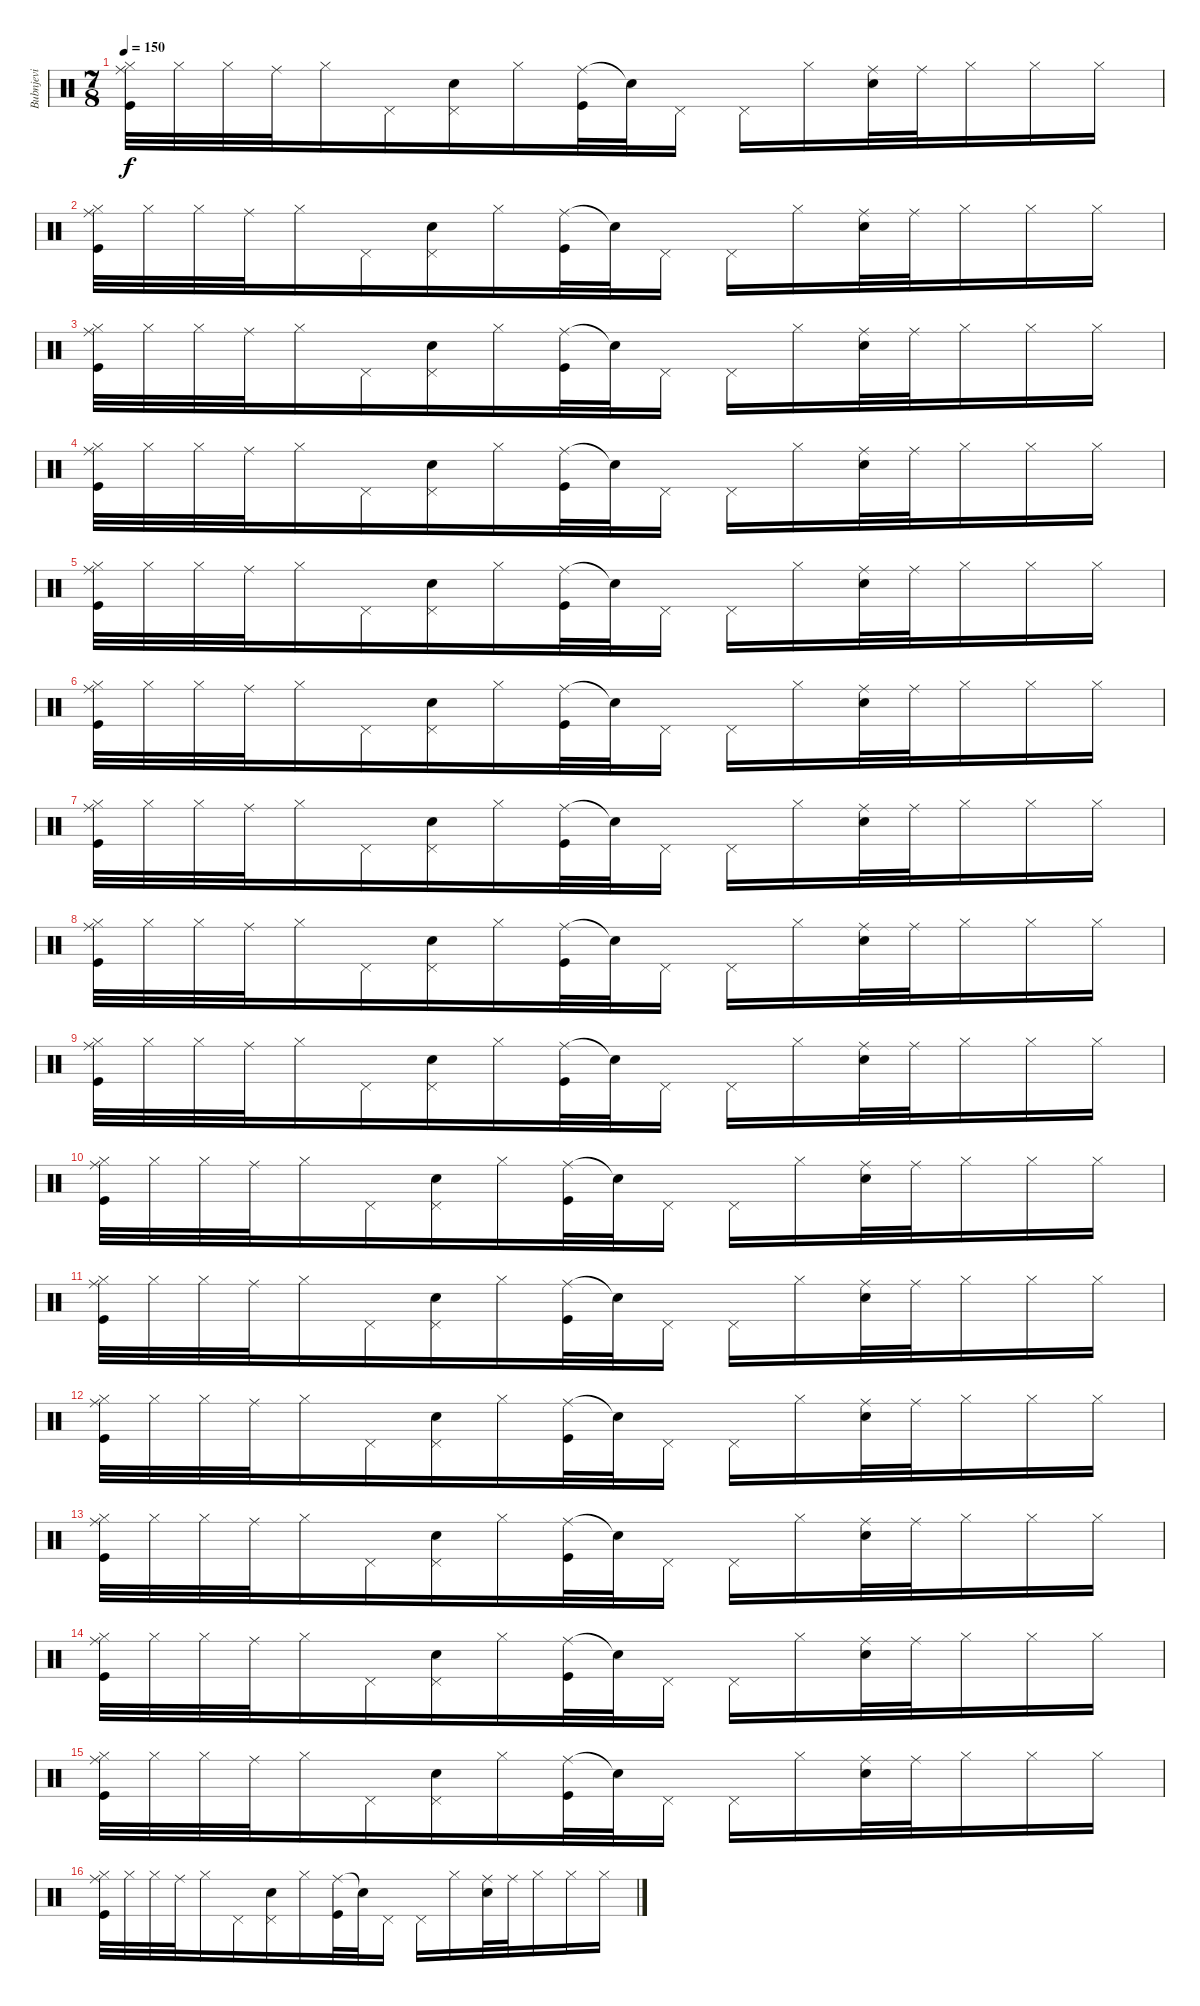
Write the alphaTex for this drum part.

\track ("Bubnjevi" "Bubnjevi") {instrument percussion}
\staff {score}
\articulation defaults
\ts (7 8)
\tempo 150
\clef neutral
\ks c
("Hi-Hat (closed)" "Ride (middle)" "Kick (hit)").32{dy f} "Hi-Hat (closed)".32 "Hi-Hat (closed)".32 "Ride (middle)".32 "Hi-Hat (closed)".16 "Pedal Hi-Hat (hit)".16 ("Pedal Hi-Hat (hit)" "Snare (hit) 2").16 "Hi-Hat (closed)".16 ("Ride (middle)" "Kick (hit)").32 "Snare (hit)"{t}.32 "Pedal Hi-Hat (hit)".16 "Pedal Hi-Hat (hit)".16 "Hi-Hat (closed)".16 ("Ride (middle)" "Snare (hit) 2").32 "Ride (middle)".32 "Hi-Hat (closed)".16 "Hi-Hat (closed)".16 "Hi-Hat (closed)".16 |
("Hi-Hat (closed)" "Ride (middle)" "Kick (hit)").32 "Hi-Hat (closed)".32 "Hi-Hat (closed)".32 "Ride (middle)".32 "Hi-Hat (closed)".16 "Pedal Hi-Hat (hit)".16 ("Pedal Hi-Hat (hit)" "Snare (hit) 2").16 "Hi-Hat (closed)".16 ("Ride (middle)" "Kick (hit)").32 "Snare (hit)"{t}.32 "Pedal Hi-Hat (hit)".16 "Pedal Hi-Hat (hit)".16 "Hi-Hat (closed)".16 ("Ride (middle)" "Snare (hit) 2").32 "Ride (middle)".32 "Hi-Hat (closed)".16 "Hi-Hat (closed)".16 "Hi-Hat (closed)".16 |
("Hi-Hat (closed)" "Ride (middle)" "Kick (hit)").32 "Hi-Hat (closed)".32 "Hi-Hat (closed)".32 "Ride (middle)".32 "Hi-Hat (closed)".16 "Pedal Hi-Hat (hit)".16 ("Pedal Hi-Hat (hit)" "Snare (hit) 2").16 "Hi-Hat (closed)".16 ("Ride (middle)" "Kick (hit)").32 "Snare (hit)"{t}.32 "Pedal Hi-Hat (hit)".16 "Pedal Hi-Hat (hit)".16 "Hi-Hat (closed)".16 ("Ride (middle)" "Snare (hit) 2").32 "Ride (middle)".32 "Hi-Hat (closed)".16 "Hi-Hat (closed)".16 "Hi-Hat (closed)".16 |
("Hi-Hat (closed)" "Ride (middle)" "Kick (hit)").32 "Hi-Hat (closed)".32 "Hi-Hat (closed)".32 "Ride (middle)".32 "Hi-Hat (closed)".16 "Pedal Hi-Hat (hit)".16 ("Pedal Hi-Hat (hit)" "Snare (hit) 2").16 "Hi-Hat (closed)".16 ("Ride (middle)" "Kick (hit)").32 "Snare (hit)"{t}.32 "Pedal Hi-Hat (hit)".16 "Pedal Hi-Hat (hit)".16 "Hi-Hat (closed)".16 ("Ride (middle)" "Snare (hit) 2").32 "Ride (middle)".32 "Hi-Hat (closed)".16 "Hi-Hat (closed)".16 "Hi-Hat (closed)".16 |
("Hi-Hat (closed)" "Ride (middle)" "Kick (hit)").32 "Hi-Hat (closed)".32 "Hi-Hat (closed)".32 "Ride (middle)".32 "Hi-Hat (closed)".16 "Pedal Hi-Hat (hit)".16 ("Pedal Hi-Hat (hit)" "Snare (hit) 2").16 "Hi-Hat (closed)".16 ("Ride (middle)" "Kick (hit)").32 "Snare (hit)"{t}.32 "Pedal Hi-Hat (hit)".16 "Pedal Hi-Hat (hit)".16 "Hi-Hat (closed)".16 ("Ride (middle)" "Snare (hit) 2").32 "Ride (middle)".32 "Hi-Hat (closed)".16 "Hi-Hat (closed)".16 "Hi-Hat (closed)".16 |
("Hi-Hat (closed)" "Ride (middle)" "Kick (hit)").32 "Hi-Hat (closed)".32 "Hi-Hat (closed)".32 "Ride (middle)".32 "Hi-Hat (closed)".16 "Pedal Hi-Hat (hit)".16 ("Pedal Hi-Hat (hit)" "Snare (hit) 2").16 "Hi-Hat (closed)".16 ("Ride (middle)" "Kick (hit)").32 "Snare (hit)"{t}.32 "Pedal Hi-Hat (hit)".16 "Pedal Hi-Hat (hit)".16 "Hi-Hat (closed)".16 ("Ride (middle)" "Snare (hit) 2").32 "Ride (middle)".32 "Hi-Hat (closed)".16 "Hi-Hat (closed)".16 "Hi-Hat (closed)".16 |
("Hi-Hat (closed)" "Ride (middle)" "Kick (hit)").32 "Hi-Hat (closed)".32 "Hi-Hat (closed)".32 "Ride (middle)".32 "Hi-Hat (closed)".16 "Pedal Hi-Hat (hit)".16 ("Pedal Hi-Hat (hit)" "Snare (hit) 2").16 "Hi-Hat (closed)".16 ("Ride (middle)" "Kick (hit)").32 "Snare (hit)"{t}.32 "Pedal Hi-Hat (hit)".16 "Pedal Hi-Hat (hit)".16 "Hi-Hat (closed)".16 ("Ride (middle)" "Snare (hit) 2").32 "Ride (middle)".32 "Hi-Hat (closed)".16 "Hi-Hat (closed)".16 "Hi-Hat (closed)".16 |
("Hi-Hat (closed)" "Ride (middle)" "Kick (hit)").32 "Hi-Hat (closed)".32 "Hi-Hat (closed)".32 "Ride (middle)".32 "Hi-Hat (closed)".16 "Pedal Hi-Hat (hit)".16 ("Pedal Hi-Hat (hit)" "Snare (hit) 2").16 "Hi-Hat (closed)".16 ("Ride (middle)" "Kick (hit)").32 "Snare (hit)"{t}.32 "Pedal Hi-Hat (hit)".16 "Pedal Hi-Hat (hit)".16 "Hi-Hat (closed)".16 ("Ride (middle)" "Snare (hit) 2").32 "Ride (middle)".32 "Hi-Hat (closed)".16 "Hi-Hat (closed)".16 "Hi-Hat (closed)".16 |
("Hi-Hat (closed)" "Ride (middle)" "Kick (hit)").32 "Hi-Hat (closed)".32 "Hi-Hat (closed)".32 "Ride (middle)".32 "Hi-Hat (closed)".16 "Pedal Hi-Hat (hit)".16 ("Pedal Hi-Hat (hit)" "Snare (hit) 2").16 "Hi-Hat (closed)".16 ("Ride (middle)" "Kick (hit)").32 "Snare (hit)"{t}.32 "Pedal Hi-Hat (hit)".16 "Pedal Hi-Hat (hit)".16 "Hi-Hat (closed)".16 ("Ride (middle)" "Snare (hit) 2").32 "Ride (middle)".32 "Hi-Hat (closed)".16 "Hi-Hat (closed)".16 "Hi-Hat (closed)".16 |
("Hi-Hat (closed)" "Ride (middle)" "Kick (hit)").32 "Hi-Hat (closed)".32 "Hi-Hat (closed)".32 "Ride (middle)".32 "Hi-Hat (closed)".16 "Pedal Hi-Hat (hit)".16 ("Pedal Hi-Hat (hit)" "Snare (hit) 2").16 "Hi-Hat (closed)".16 ("Ride (middle)" "Kick (hit)").32 "Snare (hit)"{t}.32 "Pedal Hi-Hat (hit)".16 "Pedal Hi-Hat (hit)".16 "Hi-Hat (closed)".16 ("Ride (middle)" "Snare (hit) 2").32 "Ride (middle)".32 "Hi-Hat (closed)".16 "Hi-Hat (closed)".16 "Hi-Hat (closed)".16 |
("Hi-Hat (closed)" "Ride (middle)" "Kick (hit)").32 "Hi-Hat (closed)".32 "Hi-Hat (closed)".32 "Ride (middle)".32 "Hi-Hat (closed)".16 "Pedal Hi-Hat (hit)".16 ("Pedal Hi-Hat (hit)" "Snare (hit) 2").16 "Hi-Hat (closed)".16 ("Ride (middle)" "Kick (hit)").32 "Snare (hit)"{t}.32 "Pedal Hi-Hat (hit)".16 "Pedal Hi-Hat (hit)".16 "Hi-Hat (closed)".16 ("Ride (middle)" "Snare (hit) 2").32 "Ride (middle)".32 "Hi-Hat (closed)".16 "Hi-Hat (closed)".16 "Hi-Hat (closed)".16 |
("Hi-Hat (closed)" "Ride (middle)" "Kick (hit)").32 "Hi-Hat (closed)".32 "Hi-Hat (closed)".32 "Ride (middle)".32 "Hi-Hat (closed)".16 "Pedal Hi-Hat (hit)".16 ("Pedal Hi-Hat (hit)" "Snare (hit) 2").16 "Hi-Hat (closed)".16 ("Ride (middle)" "Kick (hit)").32 "Snare (hit)"{t}.32 "Pedal Hi-Hat (hit)".16 "Pedal Hi-Hat (hit)".16 "Hi-Hat (closed)".16 ("Ride (middle)" "Snare (hit) 2").32 "Ride (middle)".32 "Hi-Hat (closed)".16 "Hi-Hat (closed)".16 "Hi-Hat (closed)".16 |
("Hi-Hat (closed)" "Ride (middle)" "Kick (hit)").32 "Hi-Hat (closed)".32 "Hi-Hat (closed)".32 "Ride (middle)".32 "Hi-Hat (closed)".16 "Pedal Hi-Hat (hit)".16 ("Pedal Hi-Hat (hit)" "Snare (hit) 2").16 "Hi-Hat (closed)".16 ("Ride (middle)" "Kick (hit)").32 "Snare (hit)"{t}.32 "Pedal Hi-Hat (hit)".16 "Pedal Hi-Hat (hit)".16 "Hi-Hat (closed)".16 ("Ride (middle)" "Snare (hit) 2").32 "Ride (middle)".32 "Hi-Hat (closed)".16 "Hi-Hat (closed)".16 "Hi-Hat (closed)".16 |
("Hi-Hat (closed)" "Ride (middle)" "Kick (hit)").32 "Hi-Hat (closed)".32 "Hi-Hat (closed)".32 "Ride (middle)".32 "Hi-Hat (closed)".16 "Pedal Hi-Hat (hit)".16 ("Pedal Hi-Hat (hit)" "Snare (hit) 2").16 "Hi-Hat (closed)".16 ("Ride (middle)" "Kick (hit)").32 "Snare (hit)"{t}.32 "Pedal Hi-Hat (hit)".16 "Pedal Hi-Hat (hit)".16 "Hi-Hat (closed)".16 ("Ride (middle)" "Snare (hit) 2").32 "Ride (middle)".32 "Hi-Hat (closed)".16 "Hi-Hat (closed)".16 "Hi-Hat (closed)".16 |
("Hi-Hat (closed)" "Ride (middle)" "Kick (hit)").32 "Hi-Hat (closed)".32 "Hi-Hat (closed)".32 "Ride (middle)".32 "Hi-Hat (closed)".16 "Pedal Hi-Hat (hit)".16 ("Pedal Hi-Hat (hit)" "Snare (hit) 2").16 "Hi-Hat (closed)".16 ("Ride (middle)" "Kick (hit)").32 "Snare (hit)"{t}.32 "Pedal Hi-Hat (hit)".16 "Pedal Hi-Hat (hit)".16 "Hi-Hat (closed)".16 ("Ride (middle)" "Snare (hit) 2").32 "Ride (middle)".32 "Hi-Hat (closed)".16 "Hi-Hat (closed)".16 "Hi-Hat (closed)".16 |
("Hi-Hat (closed)" "Ride (middle)" "Kick (hit)").32 "Hi-Hat (closed)".32 "Hi-Hat (closed)".32 "Ride (middle)".32 "Hi-Hat (closed)".16 "Pedal Hi-Hat (hit)".16 ("Pedal Hi-Hat (hit)" "Snare (hit) 2").16 "Hi-Hat (closed)".16 ("Ride (middle)" "Kick (hit)").32 "Snare (hit)"{t}.32 "Pedal Hi-Hat (hit)".16 "Pedal Hi-Hat (hit)".16 "Hi-Hat (closed)".16 ("Ride (middle)" "Snare (hit) 2").32 "Ride (middle)".32 "Hi-Hat (closed)".16 "Hi-Hat (closed)".16 "Hi-Hat (closed)".16
